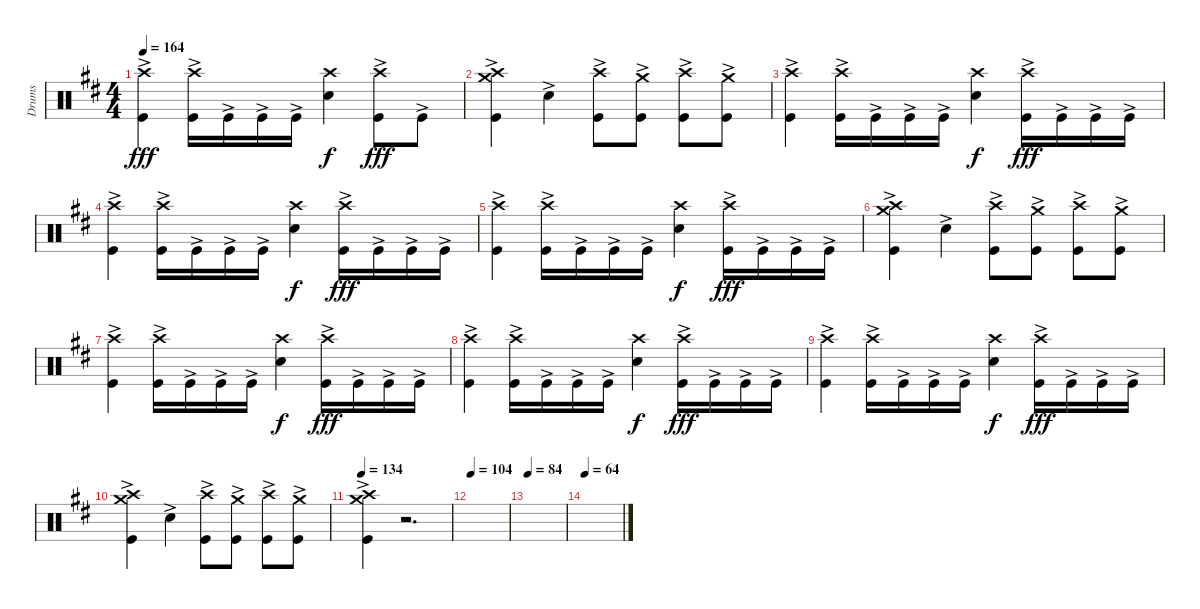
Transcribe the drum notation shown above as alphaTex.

\track ("Drums" "Drums") {instrument percussion}
\staff {score}
\articulation defaults
\ts (4 4)
\tempo 164
\clef neutral
\ks bminor
("Crash high (hit)" "Kick (hit)"{ac}).4{dy fff} ("Crash high (hit)" "Kick (hit)"{ac}).16 "Kick (hit)"{ac}.16 "Kick (hit)"{ac}.16 "Kick (hit)"{ac}.16 ("Crash high (hit)" "Snare (hit) 2").4{dy f} ("Crash high (hit)" "Kick (hit)"{ac}).8{dy fff} "Kick (hit)"{ac}.8 |
("Crash high (hit)" "Crash medium (hit)" "Kick (hit)"{ac}).4 "Snare (hit) 2"{ac}.4 ("Crash high (hit)" "Kick (hit)"{ac}).8 ("Crash medium (hit)" "Kick (hit)"{ac}).8 ("Crash high (hit)" "Kick (hit)"{ac}).8 ("Crash medium (hit)" "Kick (hit)"{ac}).8 |
("Crash high (hit)" "Kick (hit)"{ac}).4 ("Crash high (hit)" "Kick (hit)"{ac}).16 "Kick (hit)"{ac}.16 "Kick (hit)"{ac}.16 "Kick (hit)"{ac}.16 ("Crash high (hit)" "Snare (hit) 2").4{dy f} ("Crash high (hit)" "Kick (hit)"{ac}).16{dy fff} "Kick (hit)"{ac}.16 "Kick (hit)"{ac}.16 "Kick (hit)"{ac}.16 |
("Crash high (hit)" "Kick (hit)"{ac}).4 ("Crash high (hit)" "Kick (hit)"{ac}).16 "Kick (hit)"{ac}.16 "Kick (hit)"{ac}.16 "Kick (hit)"{ac}.16 ("Crash high (hit)" "Snare (hit) 2").4{dy f} ("Crash high (hit)" "Kick (hit)"{ac}).16{dy fff} "Kick (hit)"{ac}.16 "Kick (hit)"{ac}.16 "Kick (hit)"{ac}.16 |
("Crash high (hit)" "Kick (hit)"{ac}).4 ("Crash high (hit)" "Kick (hit)"{ac}).16 "Kick (hit)"{ac}.16 "Kick (hit)"{ac}.16 "Kick (hit)"{ac}.16 ("Crash high (hit)" "Snare (hit) 2").4{dy f} ("Crash high (hit)" "Kick (hit)"{ac}).16{dy fff} "Kick (hit)"{ac}.16 "Kick (hit)"{ac}.16 "Kick (hit)"{ac}.16 |
("Crash high (hit)" "Crash medium (hit)" "Kick (hit)"{ac}).4 "Snare (hit) 2"{ac}.4 ("Crash high (hit)" "Kick (hit)"{ac}).8 ("Crash medium (hit)" "Kick (hit)"{ac}).8 ("Crash high (hit)" "Kick (hit)"{ac}).8 ("Crash medium (hit)" "Kick (hit)"{ac}).8 |
("Crash high (hit)" "Kick (hit)"{ac}).4 ("Crash high (hit)" "Kick (hit)"{ac}).16 "Kick (hit)"{ac}.16 "Kick (hit)"{ac}.16 "Kick (hit)"{ac}.16 ("Crash high (hit)" "Snare (hit) 2").4{dy f} ("Crash high (hit)" "Kick (hit)"{ac}).16{dy fff} "Kick (hit)"{ac}.16 "Kick (hit)"{ac}.16 "Kick (hit)"{ac}.16 |
("Crash high (hit)" "Kick (hit)"{ac}).4 ("Crash high (hit)" "Kick (hit)"{ac}).16 "Kick (hit)"{ac}.16 "Kick (hit)"{ac}.16 "Kick (hit)"{ac}.16 ("Crash high (hit)" "Snare (hit) 2").4{dy f} ("Crash high (hit)" "Kick (hit)"{ac}).16{dy fff} "Kick (hit)"{ac}.16 "Kick (hit)"{ac}.16 "Kick (hit)"{ac}.16 |
("Crash high (hit)" "Kick (hit)"{ac}).4 ("Crash high (hit)" "Kick (hit)"{ac}).16 "Kick (hit)"{ac}.16 "Kick (hit)"{ac}.16 "Kick (hit)"{ac}.16 ("Crash high (hit)" "Snare (hit) 2").4{dy f} ("Crash high (hit)" "Kick (hit)"{ac}).16{dy fff} "Kick (hit)"{ac}.16 "Kick (hit)"{ac}.16 "Kick (hit)"{ac}.16 |
("Crash high (hit)" "Crash medium (hit)" "Kick (hit)"{ac}).4 "Snare (hit) 2"{ac}.4 ("Crash high (hit)" "Kick (hit)"{ac}).8 ("Crash medium (hit)" "Kick (hit)"{ac}).8 ("Crash high (hit)" "Kick (hit)"{ac}).8 ("Crash medium (hit)" "Kick (hit)"{ac}).8 |
\tempo 134
("Crash high (hit)" "Crash medium (hit)" "Kick (hit)"{ac}).4 r.2{d} |
\tempo 104
|
\tempo 84
|
\tempo 64
